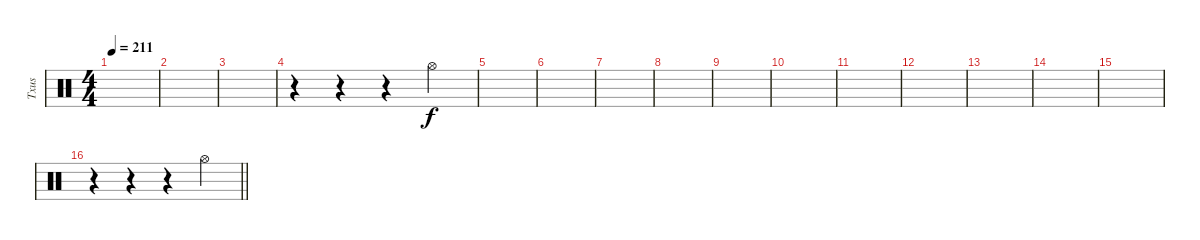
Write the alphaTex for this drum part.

\track ("Txus" "Txus") {instrument percussion}
\staff {score}
\articulation defaults
\ts (4 4)
\tempo 211
\clef neutral
\ks c
|
|
|
r.4 r.4 r.4 "Hi-Hat (open)".4 |
|
|
|
|
|
|
|
|
|
|
|
\barLineRight lightlight
r.4 r.4 r.4 "Hi-Hat (open)".4
